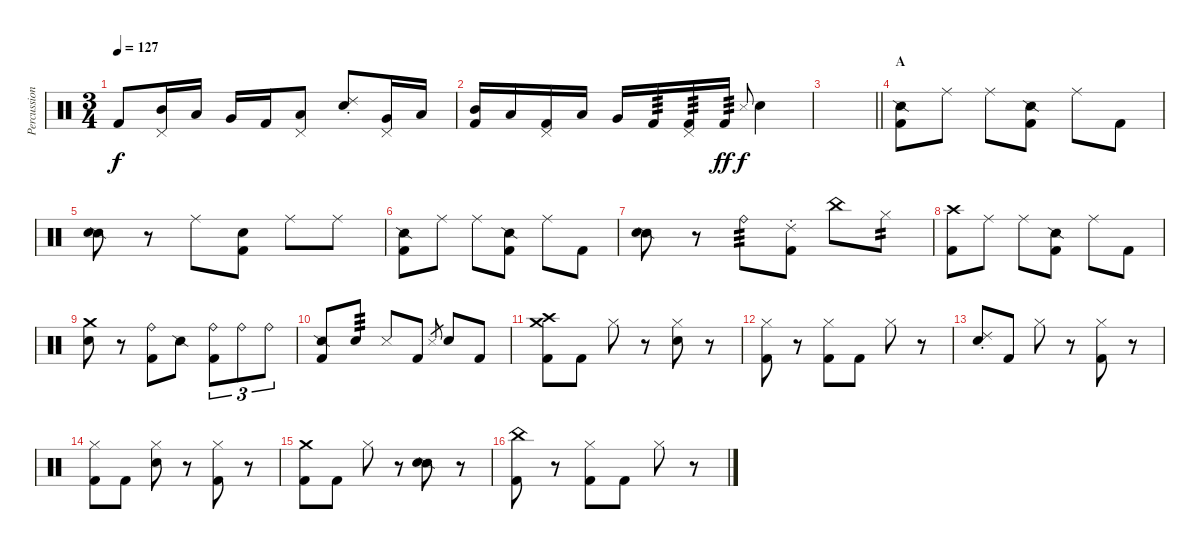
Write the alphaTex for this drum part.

\track ("Percussion" "Percussion") {instrument percussion}
\staff {score}
\articulation defaults
\ts (3 4)
\tempo 127
\clef neutral
\ks c "Kick (hit) 2".8{dy f}
("Pedal Hi-Hat (hit)" "Mid Tom (hit)").16 "Low Tom (hit)".16 "Very Low Tom (hit)".16 "Kick (hit) 2".16 ("Pedal Hi-Hat (hit)" "Low Tom (hit)").8 ("Ride (choke) 2" "Snare (hit) 2").8 ("Pedal Hi-Hat (hit)" "Very Low Tom (hit)").16 "Low Floor Tom (hit)".16 |
("Mid Tom (hit)" "Kick (hit) 2").16 "Low Floor Tom (hit)".16 ("Pedal Hi-Hat (hit)" "Kick (hit) 2").16 "Low Tom (hit)".16 "Very Low Tom (hit)".16 "Kick (hit) 2".16{tp 3} ("Pedal Hi-Hat (hit)" "Kick (hit) 2").16{tp 3} "Kick (hit) 2".16{tp 3 dy ff} "Metronome (hit)".8{gr onbeat dy f} "Snare (hit) 2".4 |
\barLineRight lightlight
|
\section ("" "A")
("Snare (side stick) 2" "Kick (hit) 2").8 "Ride (middle)".8 "Ride (middle)".8 ("Snare (side stick) 2" "Kick (hit) 2").8 "Ride (middle)".8 "Kick (hit) 2".8 |
("Snare (side stick) 2" "Snare (hit) 2").8 r.8 "Ride (middle)".8 ("Snare (hit)" "Kick (hit) 2").8 "Ride (middle)".8 "Ride (middle)".8 |
("Snare (side stick) 2" "Kick (hit) 2").8 "Ride (middle)".8 "Ride (middle)".8 ("Snare (side stick) 2" "Kick (hit) 2").8 "Ride (middle)".8 "Kick (hit) 2".8 |
("Snare (side stick) 2" "Snare (hit) 2").8 r.8 "Ride (bell)".8{tp 3} ("Ride (choke) 2" "Kick (hit) 2").8 "China (hit)".8 "Hi-Hat (closed)".8{tp 2} |
("Crash high (hit)" "Kick (hit) 2").8 "Ride (middle)".8 "Ride (middle)".8 ("Snare (side stick) 2" "Kick (hit) 2").8 "Ride (middle)".8 "Kick (hit) 2".8 |
("Crash medium (hit)" "Snare (hit) 2").8 r.8 ("Ride (bell)" "Kick (hit) 2").8 "Snare (side stick) 2".8 ("Ride (bell)" "Kick (hit) 2").8{tu (3 2)} "Ride (bell)".8{tu (3 2)} "Ride (bell)".8{tu (3 2)} |
("Snare (side stick) 2" "Kick (hit) 2").8 "Snare (hit) 2".8{tp 3} "Metronome (hit)".8 "Kick (hit) 2".8 "Metronome (hit)".8{gr} "Snare (hit) 2".8 "Kick (hit) 2".8 |
("Crash high (hit)" "Crash medium (hit)" "Kick (hit) 2").8 "Kick (hit) 2".8 "Hi-Hat (closed)".8 r.8 ("Hi-Hat (closed)" "Snare (hit) 2").8 r.8 |
("Hi-Hat (closed)" "Kick (hit) 2").8 r.8 ("Hi-Hat (closed)" "Kick (hit) 2").8 "Kick (hit) 2".8 "Hi-Hat (closed)".8 r.8 |
("Ride (choke) 2" "Snare (hit) 2").8 "Kick (hit) 2".8 "Hi-Hat (closed)".8 r.8 ("Hi-Hat (closed)" "Kick (hit) 2").8 r.8 |
("Hi-Hat (closed)" "Kick (hit) 2").8 "Kick (hit) 2".8 ("Hi-Hat (closed)" "Snare (hit) 2").8 r.8 ("Hi-Hat (closed)" "Kick (hit) 2").8 r.8 |
("Crash medium (hit)" "Kick (hit) 2").8 "Kick (hit) 2".8 "Hi-Hat (closed)".8 r.8 ("Snare (side stick) 2" "Snare (hit) 2").8 r.8 |
("China (hit)" "Kick (hit) 2").8 r.8 ("Hi-Hat (closed)" "Kick (hit) 2").8 "Kick (hit) 2".8 "Hi-Hat (closed)".8 r.8
